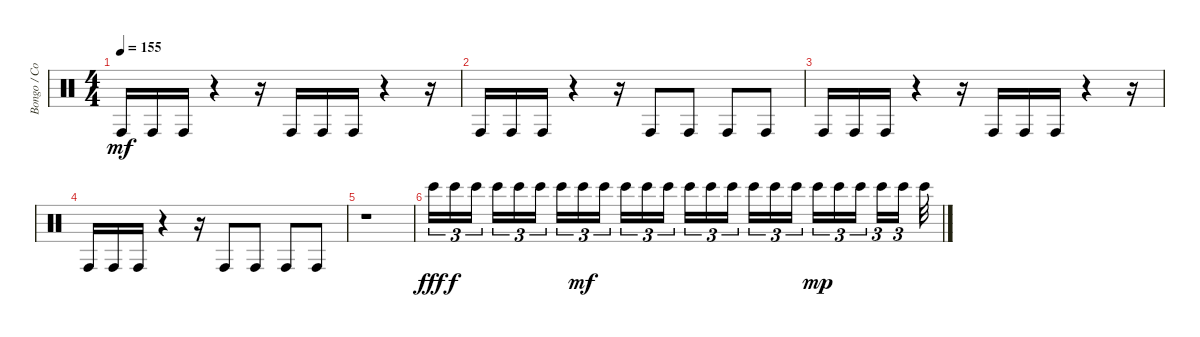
\track ("Bongo / Conga" "Bongo / Co") {instrument percussion}
\staff {score}
\articulation defaults
\ts (4 4)
\tempo 155
\clef neutral
\ks c "Conga high (hit)".16{dy mf} "Conga high (hit)".16 "Conga high (hit)".16
r.4 r.16 "Conga high (hit)".16 "Conga high (hit)".16 "Conga high (hit)".16 r.4 r.16 |
"Conga high (hit)".16 "Conga high (hit)".16 "Conga high (hit)".16 r.4 r.16 "Conga high (hit)".8 "Conga high (hit)".8 "Conga high (hit)".8 "Conga high (hit)".8 |
"Conga high (hit)".16 "Conga high (hit)".16 "Conga high (hit)".16 r.4 r.16 "Conga high (hit)".16 "Conga high (hit)".16 "Conga high (hit)".16 r.4 r.16 |
"Conga high (hit)".16 "Conga high (hit)".16 "Conga high (hit)".16 r.4 r.16 "Conga high (hit)".8 "Conga high (hit)".8 "Conga high (hit)".8 "Conga high (hit)".8 |
r.1 |
"Bongo High (hit)".16{tu (3 2) dy fff} "Bongo High (hit)".16{tu (3 2) dy f} "Bongo High (hit)".16{tu (3 2) beam splitsecondary} "Bongo High (hit)".16{tu (3 2)} "Bongo High (hit)".16{tu (3 2)} "Bongo High (hit)".16{tu (3 2)} "Bongo High (hit)".16{tu (3 2)} "Bongo High (hit)".16{tu (3 2) dy mf} "Bongo High (hit)".16{tu (3 2) beam splitsecondary} "Bongo High (hit)".16{tu (3 2)} "Bongo High (hit)".16{tu (3 2)} "Bongo High (hit)".16{tu (3 2)} "Bongo High (hit)".16{tu (3 2)} "Bongo High (hit)".16{tu (3 2)} "Bongo High (hit)".16{tu (3 2) beam splitsecondary} "Bongo High (hit)".16{tu (3 2)} "Bongo High (hit)".16{tu (3 2)} "Bongo High (hit)".16{tu (3 2)} "Bongo High (hit)".16{tu (3 2) dy mp} "Bongo High (hit)".16{tu (3 2)} "Bongo High (hit)".16{tu (3 2) beam splitsecondary} "Bongo High (hit)".16{tu (3 2)} "Bongo High (hit)".16{tu (3 2) beam splitsecondary} "Bongo High (hit)".32
